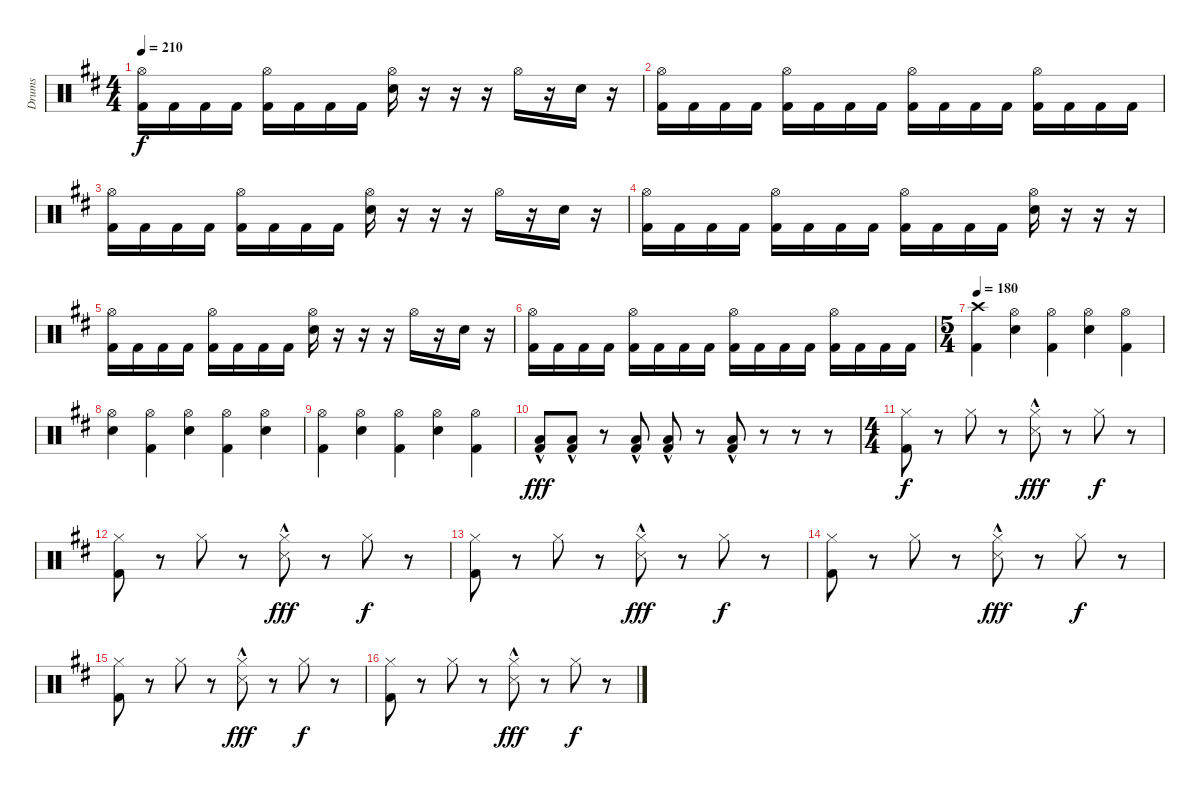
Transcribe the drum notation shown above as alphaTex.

\track ("Drums" "Drums") {instrument percussion}
\staff {score}
\articulation defaults
\ts (4 4)
\tempo 210
\clef neutral
\ks bminor
("Kick (hit) 2" "Hi-Hat (open)").16{dy f} "Kick (hit) 2".16 "Kick (hit) 2".16 "Kick (hit) 2".16 ("Kick (hit) 2" "Hi-Hat (open)").16 "Kick (hit) 2".16 "Kick (hit) 2".16 "Kick (hit) 2".16 ("Electric Snare (hit)" "Hi-Hat (open)").16 r.16 r.16 r.16 "Hi-Hat (open)".16 r.16 "Electric Snare (hit)".16 r.16 |
("Kick (hit) 2" "Hi-Hat (open)").16 "Kick (hit) 2".16 "Kick (hit) 2".16 "Kick (hit) 2".16 ("Kick (hit) 2" "Hi-Hat (open)").16 "Kick (hit) 2".16 "Kick (hit) 2".16 "Kick (hit) 2".16 ("Kick (hit) 2" "Hi-Hat (open)").16 "Kick (hit) 2".16 "Kick (hit) 2".16 "Kick (hit) 2".16 ("Kick (hit) 2" "Hi-Hat (open)").16 "Kick (hit) 2".16 "Kick (hit) 2".16 "Kick (hit) 2".16 |
("Kick (hit) 2" "Hi-Hat (open)").16 "Kick (hit) 2".16 "Kick (hit) 2".16 "Kick (hit) 2".16 ("Kick (hit) 2" "Hi-Hat (open)").16 "Kick (hit) 2".16 "Kick (hit) 2".16 "Kick (hit) 2".16 ("Electric Snare (hit)" "Hi-Hat (open)").16 r.16 r.16 r.16 "Hi-Hat (open)".16 r.16 "Electric Snare (hit)".16 r.16 |
("Kick (hit) 2" "Hi-Hat (open)").16 "Kick (hit) 2".16 "Kick (hit) 2".16 "Kick (hit) 2".16 ("Kick (hit) 2" "Hi-Hat (open)").16 "Kick (hit) 2".16 "Kick (hit) 2".16 "Kick (hit) 2".16 ("Kick (hit) 2" "Hi-Hat (open)").16 "Kick (hit) 2".16 "Kick (hit) 2".16 "Kick (hit) 2".16 ("Electric Snare (hit)" "Hi-Hat (open)").16 r.16 r.16 r.16 |
("Kick (hit) 2" "Hi-Hat (open)").16 "Kick (hit) 2".16 "Kick (hit) 2".16 "Kick (hit) 2".16 ("Kick (hit) 2" "Hi-Hat (open)").16 "Kick (hit) 2".16 "Kick (hit) 2".16 "Kick (hit) 2".16 ("Electric Snare (hit)" "Hi-Hat (open)").16 r.16 r.16 r.16 "Hi-Hat (open)".16 r.16 "Electric Snare (hit)".16 r.16 |
("Kick (hit) 2" "Hi-Hat (open)").16 "Kick (hit) 2".16 "Kick (hit) 2".16 "Kick (hit) 2".16 ("Kick (hit) 2" "Hi-Hat (open)").16 "Kick (hit) 2".16 "Kick (hit) 2".16 "Kick (hit) 2".16 ("Kick (hit) 2" "Hi-Hat (open)").16 "Kick (hit) 2".16 "Kick (hit) 2".16 "Kick (hit) 2".16 ("Kick (hit) 2" "Hi-Hat (open)").16 "Kick (hit) 2".16 "Kick (hit) 2".16 "Kick (hit) 2".16 |
\ts (5 4)
\tempo 180
("Kick (hit) 2" "Crash high (hit)").4 ("Electric Snare (hit)" "Hi-Hat (open)").4 ("Kick (hit) 2" "Hi-Hat (open)").4 ("Electric Snare (hit)" "Hi-Hat (open)").4 ("Kick (hit) 2" "Hi-Hat (open)").4 |
("Electric Snare (hit)" "Hi-Hat (open)").4 ("Kick (hit) 2" "Hi-Hat (open)").4 ("Electric Snare (hit)" "Hi-Hat (open)").4 ("Kick (hit) 2" "Hi-Hat (open)").4 ("Electric Snare (hit)" "Hi-Hat (open)").4 |
("Kick (hit) 2" "Hi-Hat (open)").4 ("Electric Snare (hit)" "Hi-Hat (open)").4 ("Kick (hit) 2" "Hi-Hat (open)").4 ("Electric Snare (hit)" "Hi-Hat (open)").4 ("Kick (hit) 2" "Hi-Hat (open)").4 |
("Kick (hit) 2" "Low Tom (hit)"{hac}).8{dy fff} ("Kick (hit) 2" "Low Tom (hit)"{hac}).8 r.8 ("Kick (hit) 2" "Low Tom (hit)"{hac}).8 ("Kick (hit) 2" "Low Tom (hit)"{hac}).8 r.8 ("Kick (hit) 2" "Low Tom (hit)"{hac}).8 r.8 r.8 r.8 |
\ts (4 4)
("Kick (hit) 2" "Hi-Hat (closed)").8{dy f} r.8 "Hi-Hat (closed)".8 r.8 ("Snare (side stick) 3"{hac} "Hi-Hat (closed)").8{dy fff} r.8 "Hi-Hat (closed)".8{dy f} r.8 |
("Kick (hit) 2" "Hi-Hat (closed)").8 r.8 "Hi-Hat (closed)".8 r.8 ("Snare (side stick) 3"{hac} "Hi-Hat (closed)").8{dy fff} r.8 "Hi-Hat (closed)".8{dy f} r.8 |
("Kick (hit) 2" "Hi-Hat (closed)").8 r.8 "Hi-Hat (closed)".8 r.8 ("Snare (side stick) 3"{hac} "Hi-Hat (closed)").8{dy fff} r.8 "Hi-Hat (closed)".8{dy f} r.8 |
("Kick (hit) 2" "Hi-Hat (closed)").8 r.8 "Hi-Hat (closed)".8 r.8 ("Snare (side stick) 3"{hac} "Hi-Hat (closed)").8{dy fff} r.8 "Hi-Hat (closed)".8{dy f} r.8 |
("Kick (hit) 2" "Hi-Hat (closed)").8 r.8 "Hi-Hat (closed)".8 r.8 ("Snare (side stick) 3"{hac} "Hi-Hat (closed)").8{dy fff} r.8 "Hi-Hat (closed)".8{dy f} r.8 |
("Kick (hit) 2" "Hi-Hat (closed)").8 r.8 "Hi-Hat (closed)".8 r.8 ("Snare (side stick) 3"{hac} "Hi-Hat (closed)").8{dy fff} r.8 "Hi-Hat (closed)".8{dy f} r.8
